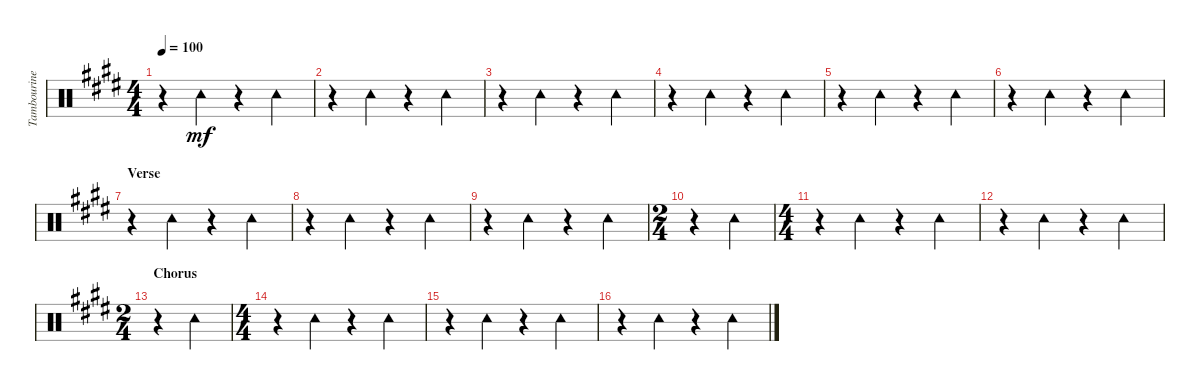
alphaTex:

\track ("Tambourine" "Tambourine") {instrument percussion}
\staff {score}
\articulation defaults
\ts (4 4)
\tempo 100
\clef neutral
\ks e
r.4{dy mf} "Tambourine (hit)".4 r.4 "Tambourine (hit)".4 |
r.4 "Tambourine (hit)".4 r.4 "Tambourine (hit)".4 |
r.4 "Tambourine (hit)".4 r.4 "Tambourine (hit)".4 |
r.4 "Tambourine (hit)".4 r.4 "Tambourine (hit)".4 |
r.4 "Tambourine (hit)".4 r.4 "Tambourine (hit)".4 |
r.4 "Tambourine (hit)".4 r.4 "Tambourine (hit)".4 |
\section ("" "Verse")
r.4 "Tambourine (hit)".4 r.4 "Tambourine (hit)".4 |
r.4 "Tambourine (hit)".4 r.4 "Tambourine (hit)".4 |
r.4 "Tambourine (hit)".4 r.4 "Tambourine (hit)".4 |
\ts (2 4)
r.4 "Tambourine (hit)".4 |
\ts (4 4)
r.4 "Tambourine (hit)".4 r.4 "Tambourine (hit)".4 |
r.4 "Tambourine (hit)".4 r.4 "Tambourine (hit)".4 |
\ts (2 4)
\section ("" "Chorus")
r.4 "Tambourine (hit)".4 |
\ts (4 4)
r.4 "Tambourine (hit)".4 r.4 "Tambourine (hit)".4 |
r.4 "Tambourine (hit)".4 r.4 "Tambourine (hit)".4 |
r.4 "Tambourine (hit)".4 r.4 "Tambourine (hit)".4
